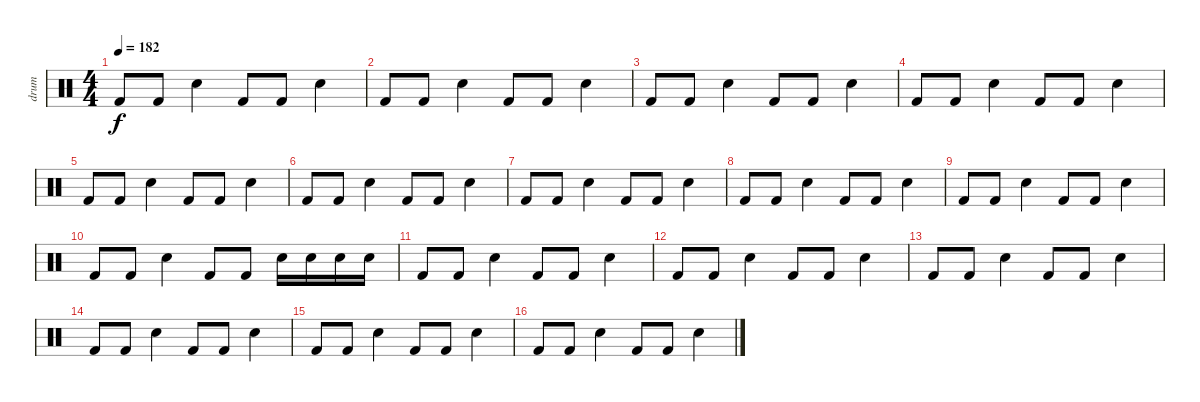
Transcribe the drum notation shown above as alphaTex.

\track ("drum" "drum") {instrument percussion}
\staff {score}
\articulation defaults
\ts (4 4)
\tempo 182
\clef neutral
\ks c "Kick (hit) 2".8{dy f} "Kick (hit) 2".8 "Electric Snare (hit)".4 "Kick (hit) 2".8 "Kick (hit) 2".8 "Electric Snare (hit)".4
|
"Kick (hit) 2".8 "Kick (hit) 2".8 "Electric Snare (hit)".4 "Kick (hit) 2".8 "Kick (hit) 2".8 "Electric Snare (hit)".4 |
"Kick (hit) 2".8 "Kick (hit) 2".8 "Electric Snare (hit)".4 "Kick (hit) 2".8 "Kick (hit) 2".8 "Electric Snare (hit)".4 |
"Kick (hit) 2".8 "Kick (hit) 2".8 "Electric Snare (hit)".4 "Kick (hit) 2".8 "Kick (hit) 2".8 "Electric Snare (hit)".4 |
"Kick (hit) 2".8 "Kick (hit) 2".8 "Electric Snare (hit)".4 "Kick (hit) 2".8 "Kick (hit) 2".8 "Electric Snare (hit)".4 |
"Kick (hit) 2".8 "Kick (hit) 2".8 "Electric Snare (hit)".4 "Kick (hit) 2".8 "Kick (hit) 2".8 "Electric Snare (hit)".4 |
"Kick (hit) 2".8 "Kick (hit) 2".8 "Electric Snare (hit)".4 "Kick (hit) 2".8 "Kick (hit) 2".8 "Electric Snare (hit)".4 |
"Kick (hit) 2".8 "Kick (hit) 2".8 "Electric Snare (hit)".4 "Kick (hit) 2".8 "Kick (hit) 2".8 "Electric Snare (hit)".4 |
"Kick (hit) 2".8 "Kick (hit) 2".8 "Electric Snare (hit)".4 "Kick (hit) 2".8 "Kick (hit) 2".8 "Electric Snare (hit)".4 |
"Kick (hit) 2".8 "Kick (hit) 2".8 "Electric Snare (hit)".4 "Kick (hit) 2".8 "Kick (hit) 2".8 "Electric Snare (hit)".16 "Electric Snare (hit)".16 "Electric Snare (hit)".16 "Electric Snare (hit)".16 |
"Kick (hit) 2".8 "Kick (hit) 2".8 "Electric Snare (hit)".4 "Kick (hit) 2".8 "Kick (hit) 2".8 "Electric Snare (hit)".4 |
"Kick (hit) 2".8 "Kick (hit) 2".8 "Electric Snare (hit)".4 "Kick (hit) 2".8 "Kick (hit) 2".8 "Electric Snare (hit)".4 |
"Kick (hit) 2".8 "Kick (hit) 2".8 "Electric Snare (hit)".4 "Kick (hit) 2".8 "Kick (hit) 2".8 "Electric Snare (hit)".4 |
"Kick (hit) 2".8 "Kick (hit) 2".8 "Electric Snare (hit)".4 "Kick (hit) 2".8 "Kick (hit) 2".8 "Electric Snare (hit)".4 |
"Kick (hit) 2".8 "Kick (hit) 2".8 "Electric Snare (hit)".4 "Kick (hit) 2".8 "Kick (hit) 2".8 "Electric Snare (hit)".4 |
"Kick (hit) 2".8 "Kick (hit) 2".8 "Electric Snare (hit)".4 "Kick (hit) 2".8 "Kick (hit) 2".8 "Electric Snare (hit)".4
